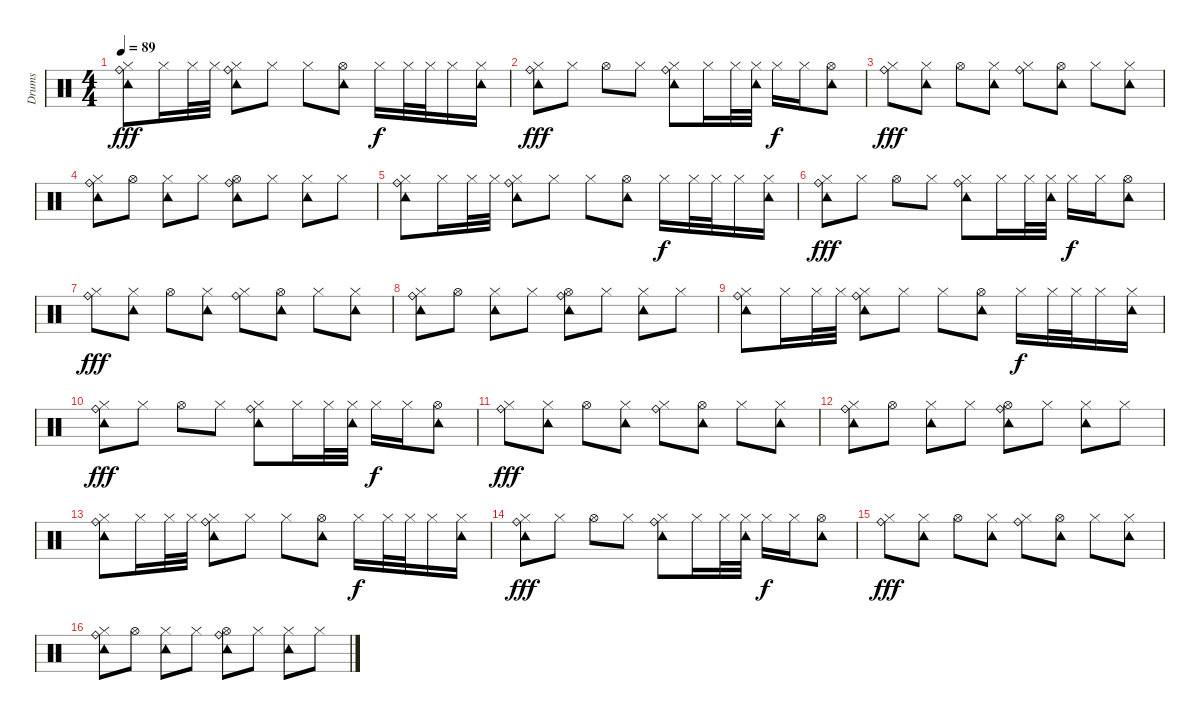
\track ("Drums" "Drums") {instrument percussion}
\staff {score}
\articulation defaults
\ts (4 4)
\tempo 89
\clef neutral
\ks c
("Hi-Hat (closed)" "Ride (bell)" "Tambourine (hit)").8{dy fff} "Hi-Hat (closed)".16 "Hi-Hat (closed)".32 "Hi-Hat (closed)".32 ("Hi-Hat (closed)" "Ride (bell)" "Tambourine (hit)").8 "Hi-Hat (closed)".8 "Hi-Hat (closed)".8 ("Hi-Hat (open)" "Tambourine (hit)").8 "Hi-Hat (closed)".16{dy f} "Hi-Hat (closed)".32 "Hi-Hat (closed)".32 "Hi-Hat (closed)".16 ("Hi-Hat (closed)" "Tambourine (hit)").16 |
("Hi-Hat (closed)" "Ride (bell)" "Tambourine (hit)").8{dy fff} "Hi-Hat (closed)".8 "Hi-Hat (open)".8 "Hi-Hat (closed)".8 ("Hi-Hat (closed)" "Ride (bell)" "Tambourine (hit)").8 "Hi-Hat (closed)".16 "Hi-Hat (closed)".32 ("Hi-Hat (closed)" "Tambourine (hit)").32 "Hi-Hat (closed)".16{dy f} "Hi-Hat (closed)".16 ("Hi-Hat (open)" "Tambourine (hit)").8 |
("Hi-Hat (closed)" "Ride (bell)").8{dy fff} ("Hi-Hat (closed)" "Tambourine (hit)").8 "Hi-Hat (open)".8 ("Hi-Hat (closed)" "Tambourine (hit)").8 ("Hi-Hat (closed)" "Ride (bell)").8 ("Hi-Hat (open)" "Tambourine (hit)").8 "Hi-Hat (closed)".8 ("Hi-Hat (closed)" "Tambourine (hit)").8 |
("Hi-Hat (closed)" "Ride (bell)" "Tambourine (hit)").8 "Hi-Hat (open)".8 ("Hi-Hat (closed)" "Tambourine (hit)").8 "Hi-Hat (closed)".8 ("Hi-Hat (open)" "Ride (bell)" "Tambourine (hit)").8 "Hi-Hat (closed)".8 ("Hi-Hat (closed)" "Tambourine (hit)").8 "Hi-Hat (closed)".8 |
("Hi-Hat (closed)" "Ride (bell)" "Tambourine (hit)").8 "Hi-Hat (closed)".16 "Hi-Hat (closed)".32 "Hi-Hat (closed)".32 ("Hi-Hat (closed)" "Ride (bell)" "Tambourine (hit)").8 "Hi-Hat (closed)".8 "Hi-Hat (closed)".8 ("Hi-Hat (open)" "Tambourine (hit)").8 "Hi-Hat (closed)".16{dy f} "Hi-Hat (closed)".32 "Hi-Hat (closed)".32 "Hi-Hat (closed)".16 ("Hi-Hat (closed)" "Tambourine (hit)").16 |
("Hi-Hat (closed)" "Ride (bell)" "Tambourine (hit)").8{dy fff} "Hi-Hat (closed)".8 "Hi-Hat (open)".8 "Hi-Hat (closed)".8 ("Hi-Hat (closed)" "Ride (bell)" "Tambourine (hit)").8 "Hi-Hat (closed)".16 "Hi-Hat (closed)".32 ("Hi-Hat (closed)" "Tambourine (hit)").32 "Hi-Hat (closed)".16{dy f} "Hi-Hat (closed)".16 ("Hi-Hat (open)" "Tambourine (hit)").8 |
("Hi-Hat (closed)" "Ride (bell)").8{dy fff} ("Hi-Hat (closed)" "Tambourine (hit)").8 "Hi-Hat (open)".8 ("Hi-Hat (closed)" "Tambourine (hit)").8 ("Hi-Hat (closed)" "Ride (bell)").8 ("Hi-Hat (open)" "Tambourine (hit)").8 "Hi-Hat (closed)".8 ("Hi-Hat (closed)" "Tambourine (hit)").8 |
("Hi-Hat (closed)" "Ride (bell)" "Tambourine (hit)").8 "Hi-Hat (open)".8 ("Hi-Hat (closed)" "Tambourine (hit)").8 "Hi-Hat (closed)".8 ("Hi-Hat (open)" "Ride (bell)" "Tambourine (hit)").8 "Hi-Hat (closed)".8 ("Hi-Hat (closed)" "Tambourine (hit)").8 "Hi-Hat (closed)".8 |
("Hi-Hat (closed)" "Ride (bell)" "Tambourine (hit)").8 "Hi-Hat (closed)".16 "Hi-Hat (closed)".32 "Hi-Hat (closed)".32 ("Hi-Hat (closed)" "Ride (bell)" "Tambourine (hit)").8 "Hi-Hat (closed)".8 "Hi-Hat (closed)".8 ("Hi-Hat (open)" "Tambourine (hit)").8 "Hi-Hat (closed)".16{dy f} "Hi-Hat (closed)".32 "Hi-Hat (closed)".32 "Hi-Hat (closed)".16 ("Hi-Hat (closed)" "Tambourine (hit)").16 |
("Hi-Hat (closed)" "Ride (bell)" "Tambourine (hit)").8{dy fff} "Hi-Hat (closed)".8 "Hi-Hat (open)".8 "Hi-Hat (closed)".8 ("Hi-Hat (closed)" "Ride (bell)" "Tambourine (hit)").8 "Hi-Hat (closed)".16 "Hi-Hat (closed)".32 ("Hi-Hat (closed)" "Tambourine (hit)").32 "Hi-Hat (closed)".16{dy f} "Hi-Hat (closed)".16 ("Hi-Hat (open)" "Tambourine (hit)").8 |
("Hi-Hat (closed)" "Ride (bell)").8{dy fff} ("Hi-Hat (closed)" "Tambourine (hit)").8 "Hi-Hat (open)".8 ("Hi-Hat (closed)" "Tambourine (hit)").8 ("Hi-Hat (closed)" "Ride (bell)").8 ("Hi-Hat (open)" "Tambourine (hit)").8 "Hi-Hat (closed)".8 ("Hi-Hat (closed)" "Tambourine (hit)").8 |
("Hi-Hat (closed)" "Ride (bell)" "Tambourine (hit)").8 "Hi-Hat (open)".8 ("Hi-Hat (closed)" "Tambourine (hit)").8 "Hi-Hat (closed)".8 ("Hi-Hat (open)" "Ride (bell)" "Tambourine (hit)").8 "Hi-Hat (closed)".8 ("Hi-Hat (closed)" "Tambourine (hit)").8 "Hi-Hat (closed)".8 |
("Hi-Hat (closed)" "Ride (bell)" "Tambourine (hit)").8 "Hi-Hat (closed)".16 "Hi-Hat (closed)".32 "Hi-Hat (closed)".32 ("Hi-Hat (closed)" "Ride (bell)" "Tambourine (hit)").8 "Hi-Hat (closed)".8 "Hi-Hat (closed)".8 ("Hi-Hat (open)" "Tambourine (hit)").8 "Hi-Hat (closed)".16{dy f} "Hi-Hat (closed)".32 "Hi-Hat (closed)".32 "Hi-Hat (closed)".16 ("Hi-Hat (closed)" "Tambourine (hit)").16 |
("Hi-Hat (closed)" "Ride (bell)" "Tambourine (hit)").8{dy fff} "Hi-Hat (closed)".8 "Hi-Hat (open)".8 "Hi-Hat (closed)".8 ("Hi-Hat (closed)" "Ride (bell)" "Tambourine (hit)").8 "Hi-Hat (closed)".16 "Hi-Hat (closed)".32 ("Hi-Hat (closed)" "Tambourine (hit)").32 "Hi-Hat (closed)".16{dy f} "Hi-Hat (closed)".16 ("Hi-Hat (open)" "Tambourine (hit)").8 |
("Hi-Hat (closed)" "Ride (bell)").8{dy fff} ("Hi-Hat (closed)" "Tambourine (hit)").8 "Hi-Hat (open)".8 ("Hi-Hat (closed)" "Tambourine (hit)").8 ("Hi-Hat (closed)" "Ride (bell)").8 ("Hi-Hat (open)" "Tambourine (hit)").8 "Hi-Hat (closed)".8 ("Hi-Hat (closed)" "Tambourine (hit)").8 |
("Hi-Hat (closed)" "Ride (bell)" "Tambourine (hit)").8 "Hi-Hat (open)".8 ("Hi-Hat (closed)" "Tambourine (hit)").8 "Hi-Hat (closed)".8 ("Hi-Hat (open)" "Ride (bell)" "Tambourine (hit)").8 "Hi-Hat (closed)".8 ("Hi-Hat (closed)" "Tambourine (hit)").8 "Hi-Hat (closed)".8
